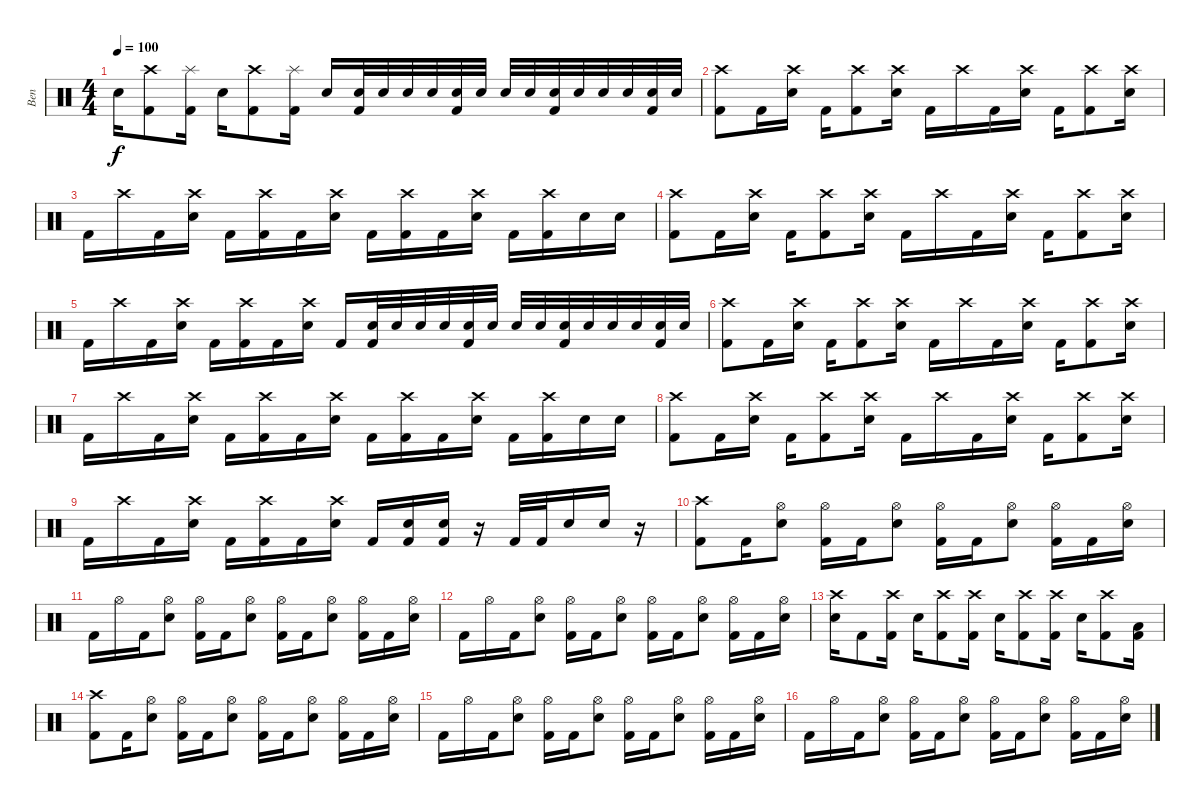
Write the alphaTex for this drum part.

\track ("Ben" "Ben") {instrument percussion}
\staff {score}
\articulation defaults
\ts (4 4)
\tempo 100
\clef neutral
\ks c "Snare (hit) 2".16{dy f}
("Crash high (hit)" "Kick (hit) 2").8 ("Splash (hit)" "Kick (hit) 2").16 "Snare (hit) 2".16 ("Crash high (hit)" "Kick (hit) 2").8 ("Splash (hit)" "Kick (hit) 2").16 "Snare (hit) 2".16 ("Kick (hit) 2" "Snare (hit) 2").32 "Snare (hit) 2".32 "Snare (hit) 2".32 "Snare (hit) 2".32 ("Kick (hit) 2" "Snare (hit) 2").32 "Snare (hit) 2".32 "Snare (hit) 2".32 "Snare (hit) 2".32 ("Kick (hit) 2" "Snare (hit) 2").32 "Snare (hit) 2".32 "Snare (hit) 2".32 "Snare (hit) 2".32 ("Kick (hit) 2" "Snare (hit) 2").32 "Snare (hit) 2".32 |
("Crash high (hit)" "Kick (hit) 2").8 "Kick (hit) 2".16 ("Crash high (hit)" "Snare (hit) 2").16 "Kick (hit) 2".16 ("Crash high (hit)" "Kick (hit) 2").8 ("Crash high (hit)" "Snare (hit) 2").16 "Kick (hit) 2".16 "Crash high (hit)".16 "Kick (hit) 2".16 ("Crash high (hit)" "Snare (hit) 2").16 "Kick (hit) 2".16 ("Crash high (hit)" "Kick (hit) 2").8 ("Crash high (hit)" "Snare (hit) 2").16 |
"Kick (hit) 2".16 "Crash high (hit)".16 "Kick (hit) 2".16 ("Crash high (hit)" "Snare (hit) 2").16 "Kick (hit) 2".16 ("Crash high (hit)" "Kick (hit) 2").16 "Kick (hit) 2".16 ("Crash high (hit)" "Snare (hit) 2").16 "Kick (hit) 2".16 ("Crash high (hit)" "Kick (hit) 2").16 "Kick (hit) 2".16 ("Crash high (hit)" "Snare (hit) 2").16 "Kick (hit) 2".16 ("Crash high (hit)" "Kick (hit) 2").16 "Snare (hit) 2".16 "Snare (hit) 2".16 |
("Crash high (hit)" "Kick (hit) 2").8 "Kick (hit) 2".16 ("Crash high (hit)" "Snare (hit) 2").16 "Kick (hit) 2".16 ("Crash high (hit)" "Kick (hit) 2").8 ("Crash high (hit)" "Snare (hit) 2").16 "Kick (hit) 2".16 "Crash high (hit)".16 "Kick (hit) 2".16 ("Crash high (hit)" "Snare (hit) 2").16 "Kick (hit) 2".16 ("Crash high (hit)" "Kick (hit) 2").8 ("Crash high (hit)" "Snare (hit) 2").16 |
"Kick (hit) 2".16 "Crash high (hit)".16 "Kick (hit) 2".16 ("Crash high (hit)" "Snare (hit) 2").16 "Kick (hit) 2".16 ("Crash high (hit)" "Kick (hit) 2").16 "Kick (hit) 2".16 ("Crash high (hit)" "Snare (hit) 2").16 "Kick (hit) 2".16 ("Kick (hit) 2" "Snare (hit) 2").32 "Snare (hit) 2".32 "Snare (hit) 2".32 "Snare (hit) 2".32 ("Kick (hit) 2" "Snare (hit) 2").32 "Snare (hit) 2".32 "Snare (hit) 2".32 "Snare (hit) 2".32 ("Kick (hit) 2" "Snare (hit) 2").32 "Snare (hit) 2".32 "Snare (hit) 2".32 "Snare (hit) 2".32 ("Kick (hit) 2" "Snare (hit) 2").32 "Snare (hit) 2".32 |
("Crash high (hit)" "Kick (hit) 2").8 "Kick (hit) 2".16 ("Crash high (hit)" "Snare (hit) 2").16 "Kick (hit) 2".16 ("Crash high (hit)" "Kick (hit) 2").8 ("Crash high (hit)" "Snare (hit) 2").16 "Kick (hit) 2".16 "Crash high (hit)".16 "Kick (hit) 2".16 ("Crash high (hit)" "Snare (hit) 2").16 "Kick (hit) 2".16 ("Crash high (hit)" "Kick (hit) 2").8 ("Crash high (hit)" "Snare (hit) 2").16 |
"Kick (hit) 2".16 "Crash high (hit)".16 "Kick (hit) 2".16 ("Crash high (hit)" "Snare (hit) 2").16 "Kick (hit) 2".16 ("Crash high (hit)" "Kick (hit) 2").16 "Kick (hit) 2".16 ("Crash high (hit)" "Snare (hit) 2").16 "Kick (hit) 2".16 ("Crash high (hit)" "Kick (hit) 2").16 "Kick (hit) 2".16 ("Crash high (hit)" "Snare (hit) 2").16 "Kick (hit) 2".16 ("Crash high (hit)" "Kick (hit) 2").16 "Snare (hit) 2".16 "Snare (hit) 2".16 |
("Crash high (hit)" "Kick (hit) 2").8 "Kick (hit) 2".16 ("Crash high (hit)" "Snare (hit) 2").16 "Kick (hit) 2".16 ("Crash high (hit)" "Kick (hit) 2").8 ("Crash high (hit)" "Snare (hit) 2").16 "Kick (hit) 2".16 "Crash high (hit)".16 "Kick (hit) 2".16 ("Crash high (hit)" "Snare (hit) 2").16 "Kick (hit) 2".16 ("Crash high (hit)" "Kick (hit) 2").8 ("Crash high (hit)" "Snare (hit) 2").16 |
"Kick (hit) 2".16 "Crash high (hit)".16 "Kick (hit) 2".16 ("Crash high (hit)" "Snare (hit) 2").16 "Kick (hit) 2".16 ("Crash high (hit)" "Kick (hit) 2").16 "Kick (hit) 2".16 ("Crash high (hit)" "Snare (hit) 2").16 "Kick (hit) 2".16 ("Snare (hit) 2" "Kick (hit) 2").16 ("Snare (hit) 2" "Kick (hit) 2").16 r.16 "Kick (hit) 2".32 "Kick (hit) 2".32 "Snare (hit) 2".16 "Snare (hit) 2".16 r.16 |
("Crash high (hit)" "Kick (hit) 2").8 "Kick (hit) 2".16 ("Hi-Hat (open)" "Snare (hit) 2").8 ("Hi-Hat (open)" "Kick (hit) 2").16 "Kick (hit) 2".16 ("Hi-Hat (open)" "Snare (hit) 2").8 ("Hi-Hat (open)" "Kick (hit) 2").16 "Kick (hit) 2".16 ("Hi-Hat (open)" "Snare (hit) 2").8 ("Hi-Hat (open)" "Kick (hit) 2").16 "Kick (hit) 2".16 ("Hi-Hat (open)" "Snare (hit) 2").16 |
"Kick (hit) 2".16 "Hi-Hat (open)".16 "Kick (hit) 2".16 ("Hi-Hat (open)" "Snare (hit) 2").8 ("Hi-Hat (open)" "Kick (hit) 2").16 "Kick (hit) 2".16 ("Hi-Hat (open)" "Snare (hit) 2").8 ("Hi-Hat (open)" "Kick (hit) 2").16 "Kick (hit) 2".16 ("Hi-Hat (open)" "Snare (hit) 2").8 ("Hi-Hat (open)" "Kick (hit) 2").16 "Kick (hit) 2".16 ("Hi-Hat (open)" "Snare (hit) 2").16 |
"Kick (hit) 2".16 "Hi-Hat (open)".16 "Kick (hit) 2".16 ("Hi-Hat (open)" "Snare (hit) 2").8 ("Hi-Hat (open)" "Kick (hit) 2").16 "Kick (hit) 2".16 ("Hi-Hat (open)" "Snare (hit) 2").8 ("Hi-Hat (open)" "Kick (hit) 2").16 "Kick (hit) 2".16 ("Hi-Hat (open)" "Snare (hit) 2").8 ("Hi-Hat (open)" "Kick (hit) 2").16 "Kick (hit) 2".16 ("Hi-Hat (open)" "Snare (hit) 2").16 |
("Crash high (hit)" "Snare (hit) 2").16 "Kick (hit) 2".8 ("Crash high (hit)" "Kick (hit) 2").16 "Snare (hit) 2".16 ("Crash high (hit)" "Kick (hit) 2").8 ("Crash high (hit)" "Kick (hit) 2").16 "Snare (hit) 2".16 ("Crash high (hit)" "Kick (hit) 2").8 ("Crash high (hit)" "Kick (hit) 2").16 "Snare (hit) 2".16 ("Crash high (hit)" "Kick (hit) 2").8 ("Low Floor Tom (hit)" "Kick (hit) 2").16 |
("Crash high (hit)" "Kick (hit) 2").8 "Kick (hit) 2".16 ("Hi-Hat (open)" "Snare (hit) 2").8 ("Hi-Hat (open)" "Kick (hit) 2").16 "Kick (hit) 2".16 ("Hi-Hat (open)" "Snare (hit) 2").8 ("Hi-Hat (open)" "Kick (hit) 2").16 "Kick (hit) 2".16 ("Hi-Hat (open)" "Snare (hit) 2").8 ("Hi-Hat (open)" "Kick (hit) 2").16 "Kick (hit) 2".16 ("Hi-Hat (open)" "Snare (hit) 2").16 |
"Kick (hit) 2".16 "Hi-Hat (open)".16 "Kick (hit) 2".16 ("Hi-Hat (open)" "Snare (hit) 2").8 ("Hi-Hat (open)" "Kick (hit) 2").16 "Kick (hit) 2".16 ("Hi-Hat (open)" "Snare (hit) 2").8 ("Hi-Hat (open)" "Kick (hit) 2").16 "Kick (hit) 2".16 ("Hi-Hat (open)" "Snare (hit) 2").8 ("Hi-Hat (open)" "Kick (hit) 2").16 "Kick (hit) 2".16 ("Hi-Hat (open)" "Snare (hit) 2").16 |
"Kick (hit) 2".16 "Hi-Hat (open)".16 "Kick (hit) 2".16 ("Hi-Hat (open)" "Snare (hit) 2").8 ("Hi-Hat (open)" "Kick (hit) 2").16 "Kick (hit) 2".16 ("Hi-Hat (open)" "Snare (hit) 2").8 ("Hi-Hat (open)" "Kick (hit) 2").16 "Kick (hit) 2".16 ("Hi-Hat (open)" "Snare (hit) 2").8 ("Hi-Hat (open)" "Kick (hit) 2").16 "Kick (hit) 2".16 ("Hi-Hat (open)" "Snare (hit) 2").16
